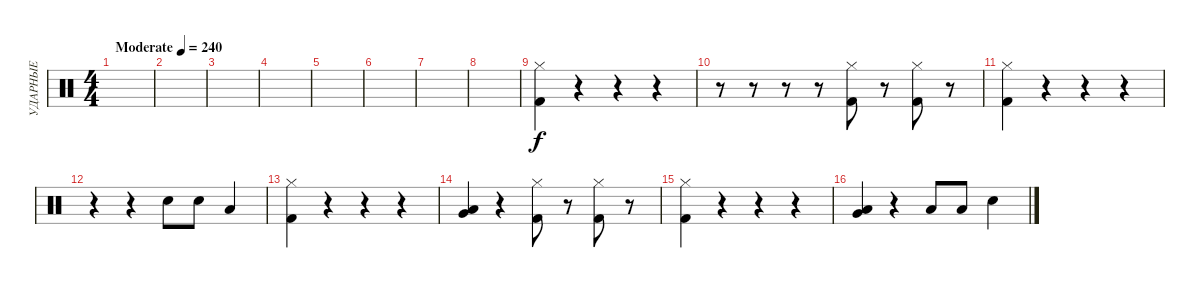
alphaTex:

\track ("УДАРНЫЕ" "УДАРНЫЕ") {instrument percussion}
\staff {score}
\articulation defaults
\ts (4 4)
\tempo (240 "Moderate")
\clef neutral
\ks c
|
|
|
|
|
|
|
|
("Hi-Hat (closed)" "Kick (hit) 2").4 r.4 r.4 r.4 |
r.8 r.8 r.8 r.8 ("Hi-Hat (closed)" "Kick (hit) 2").8 r.8 ("Hi-Hat (closed)" "Kick (hit) 2").8 r.8 |
("Hi-Hat (closed)" "Kick (hit) 2").4 r.4 r.4 r.4 |
r.4 r.4 "Snare (hit) 2".8 "Snare (hit) 2".8 "Low Tom (hit)".4 |
("Hi-Hat (closed)" "Kick (hit) 2").4 r.4 r.4 r.4 |
("Very Low Tom (hit)" "Low Tom (hit)").4 r.4 ("Hi-Hat (closed)" "Kick (hit) 2").8 r.8 ("Hi-Hat (closed)" "Kick (hit) 2").8 r.8 |
("Hi-Hat (closed)" "Kick (hit) 2").4 r.4 r.4 r.4 |
("Very Low Tom (hit)" "Low Tom (hit)").4 r.4 "Low Tom (hit)".8 "Low Tom (hit)".8 "Snare (hit) 2".4
